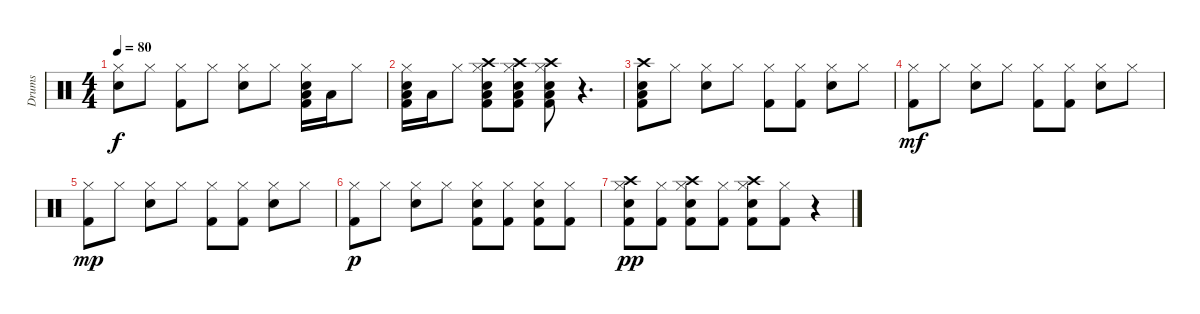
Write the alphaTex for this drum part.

\track ("Drums" "Drums") {instrument percussion}
\staff {score}
\articulation defaults
\ts (4 4)
\tempo 80
\clef neutral
\ks c
("Hi-Hat (closed)" "Snare (hit) 2").8{dy f} "Hi-Hat (closed)".8 ("Kick (hit) 2" "Hi-Hat (closed)").8 "Hi-Hat (closed)".8 ("Hi-Hat (closed)" "Snare (hit) 2").8 "Hi-Hat (closed)".8 ("Low Floor Tom (hit)" "Snare (hit) 2" "Hi-Hat (closed)" "Kick (hit) 2").16 "Low Floor Tom (hit)".16 "Hi-Hat (closed)".8 |
("Low Floor Tom (hit)" "Kick (hit) 2" "Hi-Hat (closed)" "Snare (hit) 2").16 "Low Floor Tom (hit)".16 "Hi-Hat (closed)".8 ("Low Floor Tom (hit)" "Crash high (hit)" "Hi-Hat (closed)" "Kick (hit) 2" "Snare (hit) 2").8 ("Low Floor Tom (hit)" "Snare (hit) 2" "Hi-Hat (closed)" "Crash high (hit)" "Kick (hit) 2").8 ("Low Floor Tom (hit)" "Snare (hit) 2" "Crash high (hit)" "Kick (hit) 2" "Hi-Hat (closed)").8 r.4{d} |
("Low Floor Tom (hit)" "Crash high (hit)" "Kick (hit) 2" "Snare (hit) 2").8 "Hi-Hat (closed)".8 ("Hi-Hat (closed)" "Snare (hit) 2").8 "Hi-Hat (closed)".8 ("Hi-Hat (closed)" "Kick (hit) 2").8 ("Kick (hit) 2" "Hi-Hat (closed)").8 ("Snare (hit) 2" "Hi-Hat (closed)").8 "Hi-Hat (closed)".8 |
("Hi-Hat (closed)" "Kick (hit) 2").8{dy mf} "Hi-Hat (closed)".8 ("Snare (hit) 2" "Hi-Hat (closed)").8 "Hi-Hat (closed)".8 ("Hi-Hat (closed)" "Kick (hit) 2").8 ("Kick (hit) 2" "Hi-Hat (closed)").8 ("Hi-Hat (closed)" "Snare (hit) 2").8 "Hi-Hat (closed)".8 |
("Kick (hit) 2" "Hi-Hat (closed)").8{dy mp} "Hi-Hat (closed)".8 ("Hi-Hat (closed)" "Snare (hit) 2").8 "Hi-Hat (closed)".8 ("Hi-Hat (closed)" "Kick (hit) 2").8 ("Hi-Hat (closed)" "Kick (hit) 2").8 ("Hi-Hat (closed)" "Snare (hit) 2").8 "Hi-Hat (closed)".8 |
("Kick (hit) 2" "Hi-Hat (closed)").8{dy p} "Hi-Hat (closed)".8 ("Hi-Hat (closed)" "Snare (hit) 2").8 "Hi-Hat (closed)".8 ("Snare (hit) 2" "Hi-Hat (closed)" "Kick (hit) 2").8 ("Kick (hit) 2" "Hi-Hat (closed)").8 ("Kick (hit) 2" "Hi-Hat (closed)" "Snare (hit) 2").8 ("Kick (hit) 2" "Hi-Hat (closed)").8 |
("Crash high (hit)" "Hi-Hat (closed)" "Kick (hit) 2" "Snare (hit) 2").8{dy pp} ("Hi-Hat (closed)" "Kick (hit) 2").8 ("Snare (hit) 2" "Hi-Hat (closed)" "Crash high (hit)" "Kick (hit) 2").8 ("Kick (hit) 2" "Hi-Hat (closed)").8 ("Snare (hit) 2" "Crash high (hit)" "Kick (hit) 2" "Hi-Hat (closed)").8 ("Hi-Hat (closed)" "Kick (hit) 2").8 r.4
